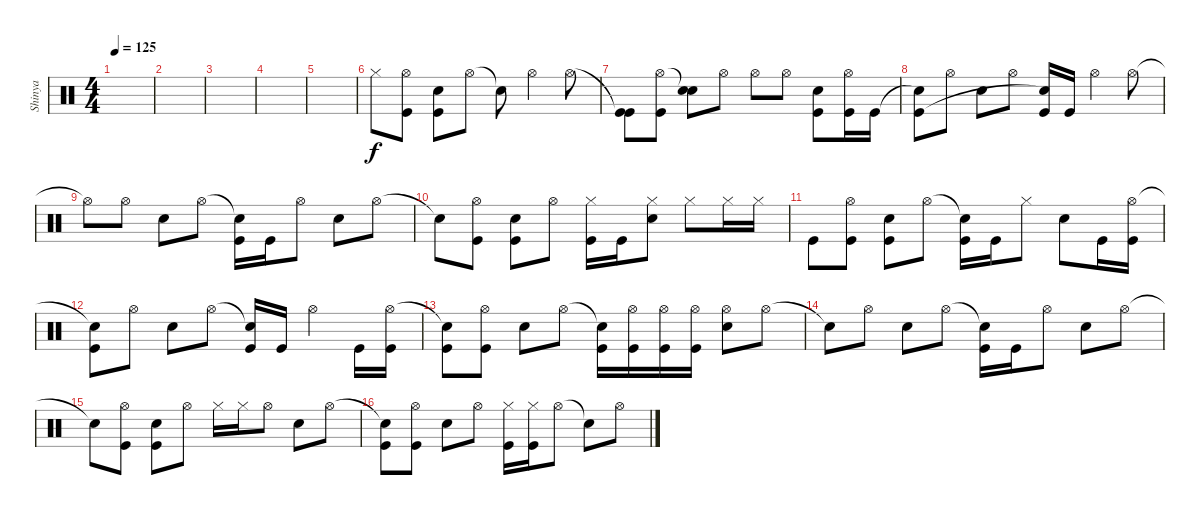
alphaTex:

\track ("Shinya" "Shinya") {instrument percussion}
\staff {score}
\articulation defaults
\ts (4 4)
\tempo 125
\clef neutral
\ks c
|
|
|
|
|
"Hi-Hat (closed)".8{volume 8} ("Hi-Hat (open)" "Kick (hit)").8 ("Electric Snare (hit)" "Kick (hit)").8 "Hi-Hat (open)".8 "Snare (hit)"{t}.8 "Hi-Hat (open)".4 "Hi-Hat (open)".8 |
("Kick (hit)"{t} "Kick (hit)").8 ("Hi-Hat (open)" "Kick (hit)").8 ("Snare (hit)"{t} "Electric Snare (hit)").8 "Hi-Hat (open)".8 "Hi-Hat (open)".8 "Hi-Hat (open)".8 ("Electric Snare (hit)" "Kick (hit)").8 ("Hi-Hat (open)" "Kick (hit)").16 "Kick (hit)".16 |
("Snare (hit)"{t} "Kick (hit)").8 "Hi-Hat (open)".8 "Electric Snare (hit)".8 "Hi-Hat (open)".8 ("Kick (hit)" "Snare (hit)"{t}).16 "Kick (hit)".16 "Hi-Hat (open)".4 "Hi-Hat (open)".8 |
"Hi-Hat (open)"{t}.8 "Hi-Hat (open)".8 "Electric Snare (hit)".8 "Hi-Hat (open)".8 ("Snare (hit)"{t} "Kick (hit)").16 "Kick (hit)".16 "Hi-Hat (open)".8 "Electric Snare (hit)".8 "Hi-Hat (open)".8 |
"Snare (hit)"{t}.8 ("Hi-Hat (open)" "Kick (hit)").8 ("Electric Snare (hit)" "Kick (hit)").8 "Hi-Hat (open)".8 ("Hi-Hat (closed)" "Kick (hit)").16 "Kick (hit)".16 ("Hi-Hat (closed)" "Electric Snare (hit)").8 "Hi-Hat (closed)".8 "Hi-Hat (closed)".16 "Hi-Hat (closed)".16 |
"Kick (hit)".8 ("Hi-Hat (open)" "Kick (hit)").8 ("Electric Snare (hit)" "Kick (hit)").8 "Hi-Hat (open)".8 ("Snare (hit)"{t} "Kick (hit)").16 "Kick (hit)".16 "Hi-Hat (closed)".8 "Electric Snare (hit)".8 "Kick (hit)".16 ("Hi-Hat (open)" "Kick (hit)").16 |
("Snare (hit)"{t} "Kick (hit)").8 "Hi-Hat (open)".8 "Electric Snare (hit)".8 "Hi-Hat (open)".8 ("Snare (hit)"{t} "Kick (hit)").16 "Kick (hit)".16 "Hi-Hat (open)".4 "Kick (hit)".16 ("Hi-Hat (open)" "Kick (hit)").16 |
("Snare (hit)"{t} "Kick (hit)").8 ("Hi-Hat (open)" "Kick (hit)").8 "Electric Snare (hit)".8 "Hi-Hat (open)".8 ("Snare (hit)"{t} "Kick (hit)").16 ("Hi-Hat (open)" "Kick (hit)").16 ("Hi-Hat (open)" "Kick (hit)").16 ("Hi-Hat (open)" "Kick (hit)").16 ("Hi-Hat (open)" "Electric Snare (hit)").8 "Hi-Hat (open)".8 |
"Snare (hit)"{t}.8 "Hi-Hat (open)".8 "Electric Snare (hit)".8 "Hi-Hat (open)".8 ("Snare (hit)"{t} "Kick (hit)").16 "Kick (hit)".16 "Hi-Hat (open)".8 "Electric Snare (hit)".8 "Hi-Hat (open)".8 |
"Snare (hit)"{t}.8 ("Hi-Hat (open)" "Kick (hit)").8 ("Electric Snare (hit)" "Kick (hit)").8 "Hi-Hat (open)".8 "Hi-Hat (closed)".16 "Hi-Hat (closed)".16 "Hi-Hat (open)".8 "Electric Snare (hit)".8 "Hi-Hat (open)".8 |
("Snare (hit)"{t} "Kick (hit)").8 ("Hi-Hat (open)" "Kick (hit)").8 "Electric Snare (hit)".8 "Hi-Hat (open)".8 ("Hi-Hat (closed)" "Kick (hit)").16 ("Hi-Hat (closed)" "Kick (hit)").16 "Hi-Hat (open)".8 "Snare (hit)"{t}.8 "Hi-Hat (open)".8
